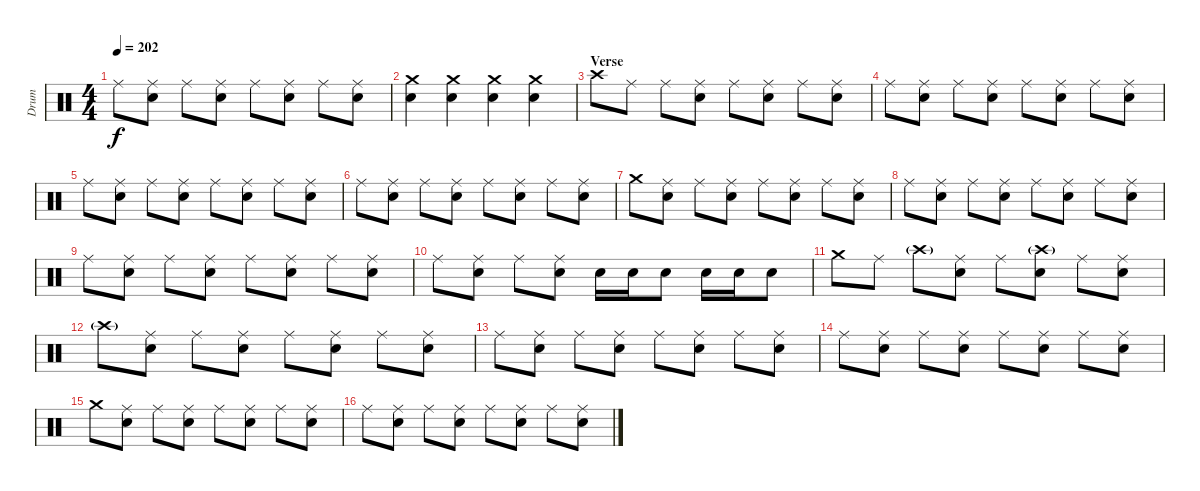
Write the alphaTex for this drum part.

\track ("Drum" "Drum") {instrument percussion}
\staff {score}
\articulation defaults
\ts (4 4)
\tempo 202
\clef neutral
\ks c "Ride (middle)".8{dy f}
("Ride (middle)" "Electric Snare (hit)").8 "Ride (middle)".8 ("Ride (middle)" "Electric Snare (hit)").8 "Ride (middle)".8 ("Ride (middle)" "Electric Snare (hit)").8 "Ride (middle)".8 ("Ride (middle)" "Electric Snare (hit)").8 |
("Crash medium (hit)" "Electric Snare (hit)").4 ("Crash medium (hit)" "Electric Snare (hit)").4 ("Crash medium (hit)" "Electric Snare (hit)").4 ("Crash medium (hit)" "Electric Snare (hit)").4 |
\section ("" "Verse")
"Crash high (hit)".8 "Ride (middle)".8 "Ride (middle)".8 ("Ride (middle)" "Electric Snare (hit)").8 "Ride (middle)".8 ("Ride (middle)" "Electric Snare (hit)").8 "Ride (middle)".8 ("Ride (middle)" "Electric Snare (hit)").8 |
"Ride (middle)".8 ("Ride (middle)" "Electric Snare (hit)").8 "Ride (middle)".8 ("Ride (middle)" "Electric Snare (hit)").8 "Ride (middle)".8 ("Ride (middle)" "Electric Snare (hit)").8 "Ride (middle)".8 ("Ride (middle)" "Electric Snare (hit)").8 |
"Ride (middle)".8 ("Ride (middle)" "Electric Snare (hit)").8 "Ride (middle)".8 ("Ride (middle)" "Electric Snare (hit)").8 "Ride (middle)".8 ("Ride (middle)" "Electric Snare (hit)").8 "Ride (middle)".8 ("Ride (middle)" "Electric Snare (hit)").8 |
"Ride (middle)".8 ("Ride (middle)" "Electric Snare (hit)").8 "Ride (middle)".8 ("Ride (middle)" "Electric Snare (hit)").8 "Ride (middle)".8 ("Ride (middle)" "Electric Snare (hit)").8 "Ride (middle)".8 ("Ride (middle)" "Electric Snare (hit)").8 |
"Crash medium (hit)".8 ("Ride (middle)" "Electric Snare (hit)").8 "Ride (middle)".8 ("Ride (middle)" "Electric Snare (hit)").8 "Ride (middle)".8 ("Ride (middle)" "Electric Snare (hit)").8 "Ride (middle)".8 ("Ride (middle)" "Electric Snare (hit)").8 |
"Ride (middle)".8 ("Ride (middle)" "Electric Snare (hit)").8 "Ride (middle)".8 ("Ride (middle)" "Electric Snare (hit)").8 "Ride (middle)".8 ("Ride (middle)" "Electric Snare (hit)").8 "Ride (middle)".8 ("Ride (middle)" "Electric Snare (hit)").8 |
"Ride (middle)".8 ("Ride (middle)" "Electric Snare (hit)").8 "Ride (middle)".8 ("Ride (middle)" "Electric Snare (hit)").8 "Ride (middle)".8 ("Ride (middle)" "Electric Snare (hit)").8 "Ride (middle)".8 ("Ride (middle)" "Electric Snare (hit)").8 |
"Ride (middle)".8 ("Ride (middle)" "Electric Snare (hit)").8 "Ride (middle)".8 ("Ride (middle)" "Electric Snare (hit)").8 "Electric Snare (hit)".16 "Electric Snare (hit)".16 "Electric Snare (hit)".8 "Electric Snare (hit)".16 "Electric Snare (hit)".16 "Electric Snare (hit)".8 |
"Crash medium (hit)".8 "Ride (middle)".8 "Crash high (hit)"{g}.8 ("Ride (middle)" "Electric Snare (hit)").8 "Ride (middle)".8 ("Crash high (hit)"{g} "Electric Snare (hit)").8 "Ride (middle)".8 ("Ride (middle)" "Electric Snare (hit)").8 |
"Crash high (hit)"{g}.8 ("Ride (middle)" "Electric Snare (hit)").8 "Ride (middle)".8 ("Ride (middle)" "Electric Snare (hit)").8 "Ride (middle)".8 ("Ride (middle)" "Electric Snare (hit)").8 "Ride (middle)".8 ("Ride (middle)" "Electric Snare (hit)").8 |
"Ride (middle)".8 ("Ride (middle)" "Electric Snare (hit)").8 "Ride (middle)".8 ("Ride (middle)" "Electric Snare (hit)").8 "Ride (middle)".8 ("Ride (middle)" "Electric Snare (hit)").8 "Ride (middle)".8 ("Ride (middle)" "Electric Snare (hit)").8 |
"Ride (middle)".8 ("Ride (middle)" "Electric Snare (hit)").8 "Ride (middle)".8 ("Ride (middle)" "Electric Snare (hit)").8 "Ride (middle)".8 ("Ride (middle)" "Electric Snare (hit)").8 "Ride (middle)".8 ("Ride (middle)" "Electric Snare (hit)").8 |
"Crash medium (hit)".8 ("Ride (middle)" "Electric Snare (hit)").8 "Ride (middle)".8 ("Ride (middle)" "Electric Snare (hit)").8 "Ride (middle)".8 ("Ride (middle)" "Electric Snare (hit)").8 "Ride (middle)".8 ("Ride (middle)" "Electric Snare (hit)").8 |
"Ride (middle)".8 ("Ride (middle)" "Electric Snare (hit)").8 "Ride (middle)".8 ("Ride (middle)" "Electric Snare (hit)").8 "Ride (middle)".8 ("Ride (middle)" "Electric Snare (hit)").8 "Ride (middle)".8 ("Ride (middle)" "Electric Snare (hit)").8
